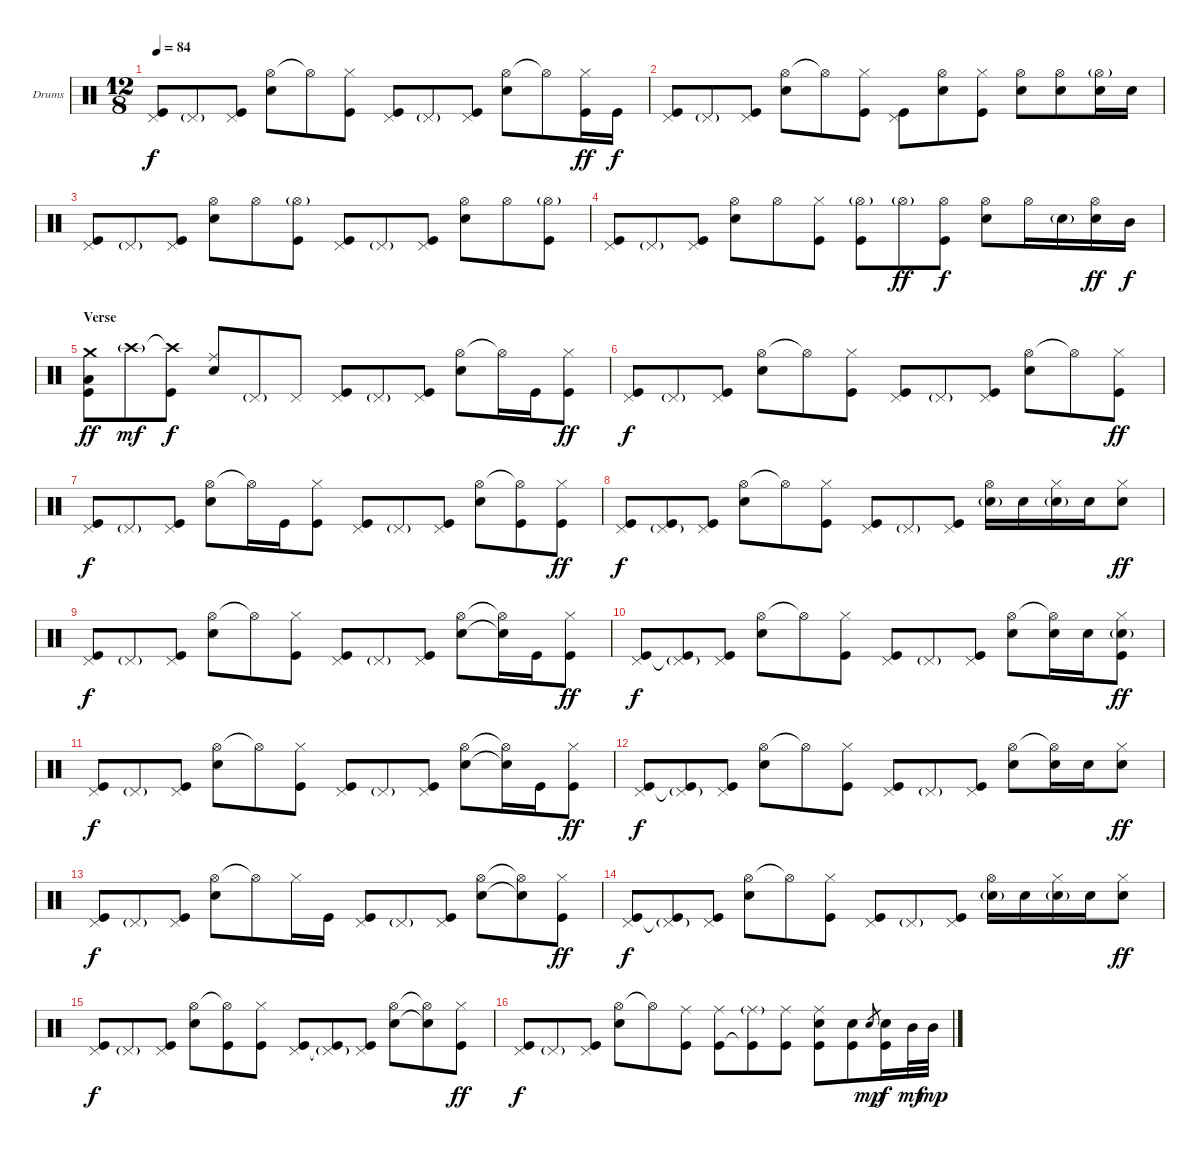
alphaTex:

\bracketExtendMode groupsimilarinstruments
\firstSystemTrackNameOrientation horizontal
\otherSystemsTrackNameOrientation horizontal
\track ("Drumkit" "Drums") {instrument percussion}
\staff {score}
\articulation defaults
\ts (12 8)
\tempo 84
\clef neutral
\ks c
("Pedal Hi-Hat (hit)" "Kick (hit)").8{dy f} "Pedal Hi-Hat (hit)"{g}.8 ("Pedal Hi-Hat (hit)" "Kick (hit)").8 ("Hi-Hat (open)" "Snare (hit) 2").8 "Hi-Hat (open)"{t}.8 ("Hi-Hat (closed)" "Kick (hit)").8 ("Pedal Hi-Hat (hit)" "Kick (hit)").8 "Pedal Hi-Hat (hit)"{g}.8 ("Pedal Hi-Hat (hit)" "Kick (hit)").8 ("Hi-Hat (open)" "Snare (hit) 2").8 "Hi-Hat (open)"{t}.8 ("Hi-Hat (closed)" "Kick (hit)").16{dy ff} "Kick (hit)".16{dy f} |
("Pedal Hi-Hat (hit)" "Kick (hit)").8 "Pedal Hi-Hat (hit)"{g}.8 ("Pedal Hi-Hat (hit)" "Kick (hit)").8 ("Hi-Hat (open)" "Snare (hit) 2").8 "Hi-Hat (open)"{t}.8 ("Hi-Hat (closed)" "Kick (hit)").8 ("Pedal Hi-Hat (hit)" "Kick (hit)").8 ("Hi-Hat (open)" "Snare (hit) 2").8 ("Hi-Hat (closed)" "Kick (hit)").8 ("Hi-Hat (open)" "Snare (hit) 2").8 ("Hi-Hat (open)" "Snare (hit) 2").8 ("Hi-Hat (open)"{g} "Snare (hit) 2").16 "Snare (hit) 2".16 |
("Pedal Hi-Hat (hit)" "Kick (hit)").8 "Pedal Hi-Hat (hit)"{g}.8 ("Pedal Hi-Hat (hit)" "Kick (hit)").8 ("Hi-Hat (open)" "Snare (hit) 2").8 "Hi-Hat (open)".8 ("Hi-Hat (open)"{g} "Kick (hit)").8 ("Pedal Hi-Hat (hit)" "Kick (hit)").8 "Pedal Hi-Hat (hit)"{g}.8 ("Pedal Hi-Hat (hit)" "Kick (hit)").8 ("Hi-Hat (open)" "Snare (hit) 2").8 "Hi-Hat (open)".8 ("Hi-Hat (open)"{g} "Kick (hit)").8 |
("Pedal Hi-Hat (hit)" "Kick (hit)").8 "Pedal Hi-Hat (hit)"{g}.8 ("Pedal Hi-Hat (hit)" "Kick (hit)").8 ("Hi-Hat (open)" "Snare (hit) 2").8 "Hi-Hat (open)".8 ("Hi-Hat (closed)" "Kick (hit)").8 ("Hi-Hat (open)"{g} "Kick (hit)").8 "Hi-Hat (open)"{g}.8{dy ff} ("Hi-Hat (open)" "Kick (hit)").8{dy f} ("Hi-Hat (open)" "Snare (hit) 2").8 "Hi-Hat (open)".16 "Snare (hit) 2"{g}.16 ("Hi-Hat (open)" "Snare (hit) 2").16{dy ff} "Mid Tom (hit)".16{dy f} |
\section ("" "Verse")
("Crash medium (hit)" "Low Tom (hit)" "Kick (hit)").8{dy ff} "Crash high (hit)"{g}.8{dy mf} ("Crash high (hit)"{t} "Kick (hit)").8{dy f} ("Ride (middle)" "Snare (hit) 2").8 "Pedal Hi-Hat (hit)"{g}.8 "Pedal Hi-Hat (hit)".8 ("Pedal Hi-Hat (hit)" "Kick (hit)").8 "Pedal Hi-Hat (hit)"{g}.8 ("Pedal Hi-Hat (hit)" "Kick (hit)").8 ("Hi-Hat (open)" "Snare (hit) 2").8 "Hi-Hat (open)"{t}.16 "Kick (hit)".16 ("Hi-Hat (closed)" "Kick (hit)").8{dy ff} |
("Pedal Hi-Hat (hit)" "Kick (hit)").8{dy f} "Pedal Hi-Hat (hit)"{g}.8 ("Pedal Hi-Hat (hit)" "Kick (hit)").8 ("Hi-Hat (open)" "Snare (hit) 2").8 "Hi-Hat (open)"{t}.8 ("Hi-Hat (closed)" "Kick (hit)").8 ("Pedal Hi-Hat (hit)" "Kick (hit)").8 "Pedal Hi-Hat (hit)"{g}.8 ("Pedal Hi-Hat (hit)" "Kick (hit)").8 ("Hi-Hat (open)" "Snare (hit) 2").8 "Hi-Hat (open)"{t}.8 ("Hi-Hat (closed)" "Kick (hit)").8{dy ff} |
("Pedal Hi-Hat (hit)" "Kick (hit)").8{dy f} "Pedal Hi-Hat (hit)"{g}.8 ("Pedal Hi-Hat (hit)" "Kick (hit)").8 ("Hi-Hat (open)" "Snare (hit) 2").8 "Hi-Hat (open)"{t}.16 "Kick (hit)".16 ("Hi-Hat (closed)" "Kick (hit)").8 ("Pedal Hi-Hat (hit)" "Kick (hit)").8 "Pedal Hi-Hat (hit)"{g}.8 ("Pedal Hi-Hat (hit)" "Kick (hit)").8 ("Hi-Hat (open)" "Snare (hit) 2").8 ("Hi-Hat (open)"{t} "Kick (hit)").8 ("Hi-Hat (closed)" "Kick (hit)").8{dy ff} |
("Pedal Hi-Hat (hit)" "Kick (hit)").8{dy f} ("Pedal Hi-Hat (hit)"{g} "Kick (hit)").8 ("Pedal Hi-Hat (hit)" "Kick (hit)").8 ("Hi-Hat (open)" "Snare (hit) 2").8 "Hi-Hat (open)"{t}.8 ("Hi-Hat (closed)" "Kick (hit)").8 ("Pedal Hi-Hat (hit)" "Kick (hit)").8 "Pedal Hi-Hat (hit)"{g}.8 ("Pedal Hi-Hat (hit)" "Kick (hit)").8 ("Hi-Hat (open)" "Snare (hit) 2"{g}).16 "Snare (hit) 2".16 ("Hi-Hat (closed)" "Snare (hit) 2"{g}).16 "Snare (hit) 2".16 ("Hi-Hat (closed)" "Snare (hit) 2").8{dy ff} |
("Pedal Hi-Hat (hit)" "Kick (hit)").8{dy f} "Pedal Hi-Hat (hit)"{g}.8 ("Pedal Hi-Hat (hit)" "Kick (hit)").8 ("Hi-Hat (open)" "Snare (hit) 2").8 "Hi-Hat (open)"{t}.8 ("Hi-Hat (closed)" "Kick (hit)").8 ("Pedal Hi-Hat (hit)" "Kick (hit)").8 "Pedal Hi-Hat (hit)"{g}.8 ("Pedal Hi-Hat (hit)" "Kick (hit)").8 ("Hi-Hat (open)" "Snare (hit) 2").8 ("Hi-Hat (open)"{t} "Snare (hit) 2"{t}).16 "Kick (hit)".16 ("Hi-Hat (closed)" "Kick (hit)").8{dy ff} |
("Pedal Hi-Hat (hit)" "Kick (hit)").8{dy f} ("Pedal Hi-Hat (hit)"{g} "Kick (hit)"{t}).8 ("Pedal Hi-Hat (hit)" "Kick (hit)").8 ("Hi-Hat (open)" "Snare (hit) 2").8 "Hi-Hat (open)"{t}.8 ("Hi-Hat (closed)" "Kick (hit)").8 ("Pedal Hi-Hat (hit)" "Kick (hit)").8 "Pedal Hi-Hat (hit)"{g}.8 ("Pedal Hi-Hat (hit)" "Kick (hit)").8 ("Hi-Hat (open)" "Snare (hit) 2").8 ("Hi-Hat (open)"{t} "Snare (hit) 2").16 "Snare (hit) 2".16 ("Hi-Hat (closed)" "Snare (hit) 2"{g} "Kick (hit)").8{dy ff} |
("Pedal Hi-Hat (hit)" "Kick (hit)").8{dy f} "Pedal Hi-Hat (hit)"{g}.8 ("Pedal Hi-Hat (hit)" "Kick (hit)").8 ("Hi-Hat (open)" "Snare (hit) 2").8 "Hi-Hat (open)"{t}.8 ("Hi-Hat (closed)" "Kick (hit)").8 ("Pedal Hi-Hat (hit)" "Kick (hit)").8 "Pedal Hi-Hat (hit)"{g}.8 ("Pedal Hi-Hat (hit)" "Kick (hit)").8 ("Hi-Hat (open)" "Snare (hit) 2").8 ("Hi-Hat (open)"{t} "Snare (hit) 2"{t}).16 "Kick (hit)".16 ("Hi-Hat (closed)" "Kick (hit)").8{dy ff} |
("Pedal Hi-Hat (hit)" "Kick (hit)").8{dy f} ("Pedal Hi-Hat (hit)"{g} "Kick (hit)"{t}).8 ("Pedal Hi-Hat (hit)" "Kick (hit)").8 ("Hi-Hat (open)" "Snare (hit) 2").8 "Hi-Hat (open)"{t}.8 ("Hi-Hat (closed)" "Kick (hit)").8 ("Pedal Hi-Hat (hit)" "Kick (hit)").8 "Pedal Hi-Hat (hit)"{g}.8 ("Pedal Hi-Hat (hit)" "Kick (hit)").8 ("Hi-Hat (open)" "Snare (hit) 2").8 ("Hi-Hat (open)"{t} "Snare (hit) 2").16 "Snare (hit) 2".16 ("Hi-Hat (closed)" "Snare (hit) 2").8{dy ff} |
("Pedal Hi-Hat (hit)" "Kick (hit)").8{dy f} "Pedal Hi-Hat (hit)"{g}.8 ("Pedal Hi-Hat (hit)" "Kick (hit)").8 ("Hi-Hat (open)" "Snare (hit) 2").8 "Hi-Hat (open)"{t}.8 "Hi-Hat (closed)".16 "Kick (hit)".16 ("Pedal Hi-Hat (hit)" "Kick (hit)").8 "Pedal Hi-Hat (hit)"{g}.8 ("Pedal Hi-Hat (hit)" "Kick (hit)").8 ("Hi-Hat (open)" "Snare (hit) 2").8 ("Hi-Hat (open)"{t} "Snare (hit) 2"{t}).8 ("Hi-Hat (closed)" "Kick (hit)").8{dy ff} |
("Pedal Hi-Hat (hit)" "Kick (hit)").8{dy f} ("Pedal Hi-Hat (hit)"{g} "Kick (hit)"{t}).8 ("Pedal Hi-Hat (hit)" "Kick (hit)").8 ("Hi-Hat (open)" "Snare (hit) 2").8 "Hi-Hat (open)"{t}.8 ("Hi-Hat (closed)" "Kick (hit)").8 ("Pedal Hi-Hat (hit)" "Kick (hit)").8 "Pedal Hi-Hat (hit)"{g}.8 ("Pedal Hi-Hat (hit)" "Kick (hit)").8 ("Hi-Hat (open)" "Snare (hit) 2"{g}).16 "Snare (hit) 2".16 ("Hi-Hat (closed)" "Snare (hit) 2"{g}).16 "Snare (hit) 2".16 ("Hi-Hat (closed)" "Snare (hit) 2").8{dy ff} |
("Pedal Hi-Hat (hit)" "Kick (hit)").8{dy f} "Pedal Hi-Hat (hit)"{g}.8 ("Pedal Hi-Hat (hit)" "Kick (hit)").8 ("Hi-Hat (open)" "Snare (hit) 2").8 ("Hi-Hat (open)"{t} "Kick (hit)").8 ("Hi-Hat (closed)" "Kick (hit)").8 ("Pedal Hi-Hat (hit)" "Kick (hit)").8 ("Pedal Hi-Hat (hit)"{g} "Kick (hit)"{t}).8 ("Pedal Hi-Hat (hit)" "Kick (hit)").8 ("Hi-Hat (open)" "Snare (hit) 2").8 ("Hi-Hat (open)"{t} "Snare (hit) 2"{t}).8 ("Hi-Hat (closed)" "Kick (hit)").8{dy ff} |
("Pedal Hi-Hat (hit)" "Kick (hit)").8{dy f} "Pedal Hi-Hat (hit)"{g}.8 ("Pedal Hi-Hat (hit)" "Kick (hit)").8 ("Hi-Hat (open)" "Snare (hit) 2").8 "Hi-Hat (open)"{t}.8 ("Ride (middle)" "Kick (hit)").8 ("Ride (middle)" "Kick (hit)").8 ("Ride (middle)"{g} "Kick (hit)"{t}).8 ("Ride (middle)" "Kick (hit)").8 ("Ride (middle)" "Snare (hit) 2" "Kick (hit)").8 ("Snare (hit) 2" "Kick (hit)").8 "Snare (hit) 2".8{gr dy mp} ("Snare (hit) 2" "Kick (hit)").16{dy f} "Mid Tom (hit)".32{dy mf} "Mid Tom (hit)".32{dy mp}
